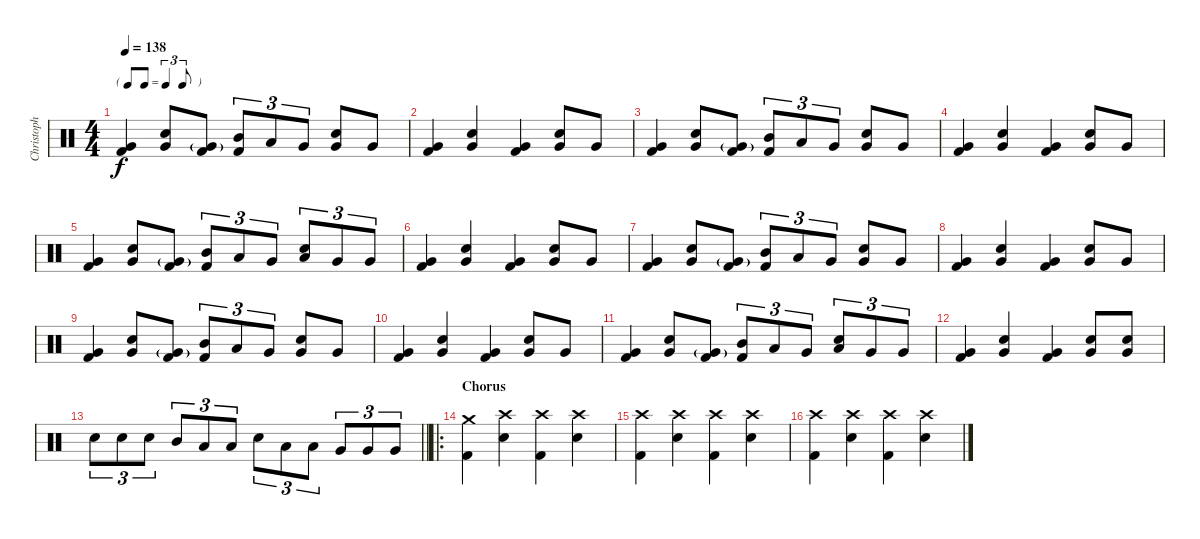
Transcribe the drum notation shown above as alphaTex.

\track ("Christoph Schneider" "Christoph ") {instrument percussion}
\staff {score}
\articulation defaults
\ts (4 4)
\tf triplet8th
\tempo 138
\clef neutral
\ks c
("Very Low Tom (hit)" "Kick (hit) 2").4{dy f} ("Very Low Tom (hit)" "Electric Snare (hit)").8 ("Very Low Tom (hit)"{g} "Kick (hit) 2").8 ("Mid Tom (hit)" "Kick (hit) 2").8{tu (3 2)} "Low Tom (hit)".8{tu (3 2)} "Very Low Tom (hit)".8{tu (3 2)} ("Very Low Tom (hit)" "Electric Snare (hit)").8 "Very Low Tom (hit)".8 |
("Very Low Tom (hit)" "Kick (hit) 2").4 ("Very Low Tom (hit)" "Electric Snare (hit)").4 ("Very Low Tom (hit)" "Kick (hit) 2").4 ("Very Low Tom (hit)" "Electric Snare (hit)").8 "Very Low Tom (hit)".8 |
("Very Low Tom (hit)" "Kick (hit) 2").4 ("Very Low Tom (hit)" "Electric Snare (hit)").8 ("Very Low Tom (hit)"{g} "Kick (hit) 2").8 ("Mid Tom (hit)" "Kick (hit) 2").8{tu (3 2)} "Low Tom (hit)".8{tu (3 2)} "Very Low Tom (hit)".8{tu (3 2)} ("Very Low Tom (hit)" "Electric Snare (hit)").8 "Very Low Tom (hit)".8 |
("Very Low Tom (hit)" "Kick (hit) 2").4 ("Very Low Tom (hit)" "Electric Snare (hit)").4 ("Very Low Tom (hit)" "Kick (hit) 2").4 ("Very Low Tom (hit)" "Electric Snare (hit)").8 "Very Low Tom (hit)".8 |
("Very Low Tom (hit)" "Kick (hit) 2").4 ("Very Low Tom (hit)" "Electric Snare (hit)").8 ("Very Low Tom (hit)"{g} "Kick (hit) 2").8 ("Mid Tom (hit)" "Kick (hit) 2").8{tu (3 2)} "Low Tom (hit)".8{tu (3 2)} "Very Low Tom (hit)".8{tu (3 2)} ("Low Tom (hit)" "Electric Snare (hit)").8{tu (3 2)} "Very Low Tom (hit)".8{tu (3 2)} "Very Low Tom (hit)".8{tu (3 2)} |
("Very Low Tom (hit)" "Kick (hit) 2").4 ("Very Low Tom (hit)" "Electric Snare (hit)").4 ("Very Low Tom (hit)" "Kick (hit) 2").4 ("Very Low Tom (hit)" "Electric Snare (hit)").8 "Very Low Tom (hit)".8 |
("Very Low Tom (hit)" "Kick (hit) 2").4 ("Very Low Tom (hit)" "Electric Snare (hit)").8 ("Very Low Tom (hit)"{g} "Kick (hit) 2").8 ("Mid Tom (hit)" "Kick (hit) 2").8{tu (3 2)} "Low Tom (hit)".8{tu (3 2)} "Very Low Tom (hit)".8{tu (3 2)} ("Very Low Tom (hit)" "Electric Snare (hit)").8 "Very Low Tom (hit)".8 |
("Very Low Tom (hit)" "Kick (hit) 2").4 ("Very Low Tom (hit)" "Electric Snare (hit)").4 ("Very Low Tom (hit)" "Kick (hit) 2").4 ("Very Low Tom (hit)" "Electric Snare (hit)").8 "Very Low Tom (hit)".8 |
("Very Low Tom (hit)" "Kick (hit) 2").4 ("Very Low Tom (hit)" "Electric Snare (hit)").8 ("Very Low Tom (hit)"{g} "Kick (hit) 2").8 ("Mid Tom (hit)" "Kick (hit) 2").8{tu (3 2)} "Low Tom (hit)".8{tu (3 2)} "Very Low Tom (hit)".8{tu (3 2)} ("Very Low Tom (hit)" "Electric Snare (hit)").8 "Very Low Tom (hit)".8 |
("Very Low Tom (hit)" "Kick (hit) 2").4 ("Very Low Tom (hit)" "Electric Snare (hit)").4 ("Very Low Tom (hit)" "Kick (hit) 2").4 ("Very Low Tom (hit)" "Electric Snare (hit)").8 "Very Low Tom (hit)".8 |
("Very Low Tom (hit)" "Kick (hit) 2").4 ("Very Low Tom (hit)" "Electric Snare (hit)").8 ("Very Low Tom (hit)"{g} "Kick (hit) 2").8 ("Mid Tom (hit)" "Kick (hit) 2").8{tu (3 2)} "Low Tom (hit)".8{tu (3 2)} "Very Low Tom (hit)".8{tu (3 2)} ("Low Tom (hit)" "Electric Snare (hit)").8{tu (3 2)} "Very Low Tom (hit)".8{tu (3 2)} "Very Low Tom (hit)".8{tu (3 2)} |
("Very Low Tom (hit)" "Kick (hit) 2").4 ("Very Low Tom (hit)" "Electric Snare (hit)").4 ("Very Low Tom (hit)" "Kick (hit) 2").4 ("Very Low Tom (hit)" "Electric Snare (hit)").8 ("Very Low Tom (hit)" "Electric Snare (hit)").8 |
\barLineRight lightlight "Electric Snare (hit)".8{tu (3 2)} "Electric Snare (hit)".8{tu (3 2)} "Electric Snare (hit)".8{tu (3 2)} "Mid Tom (hit)".8{tu (3 2)} "Low Tom (hit)".8{tu (3 2)} "Low Tom (hit)".8{tu (3 2)} "Electric Snare (hit)".8{tu (3 2)} "Low Tom (hit)".8{tu (3 2)} "Low Tom (hit)".8{tu (3 2)} "Very Low Tom (hit)".8{tu (3 2)} "Very Low Tom (hit)".8{tu (3 2)} "Very Low Tom (hit)".8{tu (3 2)}
|
\ro
\section ("" "Chorus")
("Crash medium (hit)" "Kick (hit) 2").4 ("Crash high (hit)" "Electric Snare (hit)").4 ("Crash high (hit)" "Kick (hit) 2").4 ("Crash high (hit)" "Electric Snare (hit)").4 |
("Crash high (hit)" "Kick (hit) 2").4 ("Crash high (hit)" "Electric Snare (hit)").4 ("Crash high (hit)" "Kick (hit) 2").4 ("Crash high (hit)" "Electric Snare (hit)").4 |
("Crash high (hit)" "Kick (hit) 2").4 ("Crash high (hit)" "Electric Snare (hit)").4 ("Crash high (hit)" "Kick (hit) 2").4 ("Crash high (hit)" "Electric Snare (hit)").4
